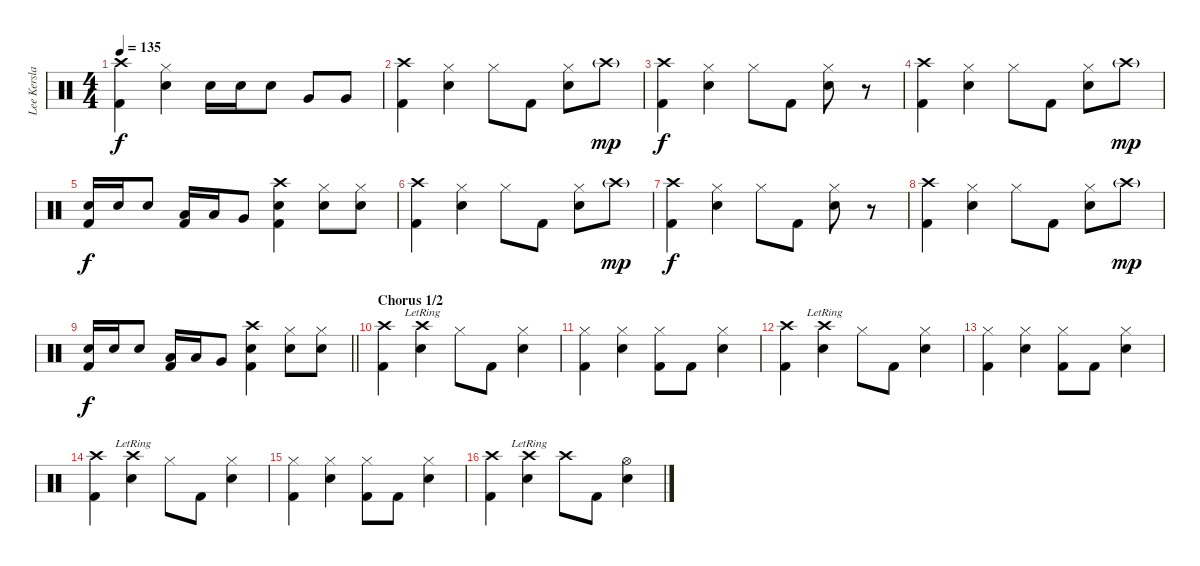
\track ("Lee Kerslake" "Lee Kersla") {instrument percussion}
\staff {score}
\articulation defaults
\ts (4 4)
\tempo 135
\clef neutral
\ks c
("Crash high (hit)" "Kick (hit) 2").4{dy f} ("Hi-Hat (closed)" "Electric Snare (hit)").4 "Electric Snare (hit)".16 "Electric Snare (hit)".16 "Electric Snare (hit)".8 "Very Low Tom (hit)".8 "Very Low Tom (hit)".8 |
("Crash high (hit)" "Kick (hit) 2").4 ("Hi-Hat (closed)" "Electric Snare (hit)").4 "Hi-Hat (closed)".8 "Kick (hit) 2".8 ("Hi-Hat (closed)" "Electric Snare (hit)").8 "Crash high (hit)"{g}.8{dy mp} |
("Crash high (hit)" "Kick (hit) 2").4{dy f} ("Hi-Hat (closed)" "Electric Snare (hit)").4 "Hi-Hat (closed)".8 "Kick (hit) 2".8 ("Hi-Hat (closed)" "Electric Snare (hit)").8 r.8 |
("Crash high (hit)" "Kick (hit) 2").4 ("Hi-Hat (closed)" "Electric Snare (hit)").4 "Hi-Hat (closed)".8 "Kick (hit) 2".8 ("Hi-Hat (closed)" "Electric Snare (hit)").8 "Crash high (hit)"{g}.8{dy mp} |
("Electric Snare (hit)" "Kick (hit) 2").16{dy f} "Electric Snare (hit)".16 "Electric Snare (hit)".8 ("Low Floor Tom (hit)" "Kick (hit) 2").16 "Low Floor Tom (hit)".16 "Very Low Tom (hit)".8 ("Crash high (hit)" "Electric Snare (hit)" "Kick (hit) 2").4 ("Hi-Hat (closed)" "Electric Snare (hit)").8 ("Hi-Hat (closed)" "Electric Snare (hit)").8 |
("Crash high (hit)" "Kick (hit) 2").4 ("Hi-Hat (closed)" "Electric Snare (hit)").4 "Hi-Hat (closed)".8 "Kick (hit) 2".8 ("Hi-Hat (closed)" "Electric Snare (hit)").8 "Crash high (hit)"{g}.8{dy mp} |
("Crash high (hit)" "Kick (hit) 2").4{dy f} ("Hi-Hat (closed)" "Electric Snare (hit)").4 "Hi-Hat (closed)".8 "Kick (hit) 2".8 ("Hi-Hat (closed)" "Electric Snare (hit)").8 r.8 |
("Crash high (hit)" "Kick (hit) 2").4 ("Hi-Hat (closed)" "Electric Snare (hit)").4 "Hi-Hat (closed)".8 "Kick (hit) 2".8 ("Hi-Hat (closed)" "Electric Snare (hit)").8 "Crash high (hit)"{g}.8{dy mp} |
\barLineRight lightlight
("Electric Snare (hit)" "Kick (hit) 2").16{dy f} "Electric Snare (hit)".16 "Electric Snare (hit)".8 ("Low Floor Tom (hit)" "Kick (hit) 2").16 "Low Floor Tom (hit)".16 "Very Low Tom (hit)".8 ("Crash high (hit)" "Electric Snare (hit)" "Kick (hit) 2").4 ("Hi-Hat (closed)" "Electric Snare (hit)").8 ("Hi-Hat (closed)" "Electric Snare (hit)").8 |
\section ("" "Chorus 1/2")
("Crash high (hit)" "Kick (hit) 2").4 ("Crash high (hit)"{lr} "Electric Snare (hit)").4 "Hi-Hat (closed)".8 "Kick (hit) 2".8 ("Hi-Hat (closed)" "Electric Snare (hit)").4 |
("Hi-Hat (closed)" "Kick (hit) 2").4 ("Hi-Hat (closed)" "Electric Snare (hit)").4 ("Hi-Hat (closed)" "Kick (hit) 2").8 "Kick (hit) 2".8 ("Hi-Hat (closed)" "Electric Snare (hit)").4 |
("Crash high (hit)" "Kick (hit) 2").4 ("Crash high (hit)"{lr} "Electric Snare (hit)").4 "Hi-Hat (closed)".8 "Kick (hit) 2".8 ("Hi-Hat (closed)" "Electric Snare (hit)").4 |
("Hi-Hat (closed)" "Kick (hit) 2").4 ("Hi-Hat (closed)" "Electric Snare (hit)").4 ("Hi-Hat (closed)" "Kick (hit) 2").8 "Kick (hit) 2".8 ("Hi-Hat (closed)" "Electric Snare (hit)").4 |
("Crash high (hit)" "Kick (hit) 2").4 ("Crash high (hit)"{lr} "Electric Snare (hit)").4 "Hi-Hat (closed)".8 "Kick (hit) 2".8 ("Hi-Hat (closed)" "Electric Snare (hit)").4 |
("Hi-Hat (closed)" "Kick (hit) 2").4 ("Hi-Hat (closed)" "Electric Snare (hit)").4 ("Hi-Hat (closed)" "Kick (hit) 2").8 "Kick (hit) 2".8 ("Hi-Hat (closed)" "Electric Snare (hit)").4 |
("Crash high (hit)" "Kick (hit) 2").4 ("Crash high (hit)"{lr} "Electric Snare (hit)").4 "Crash high (hit)".8 "Kick (hit) 2".8 ("Hi-Hat (open)" "Electric Snare (hit)").4
